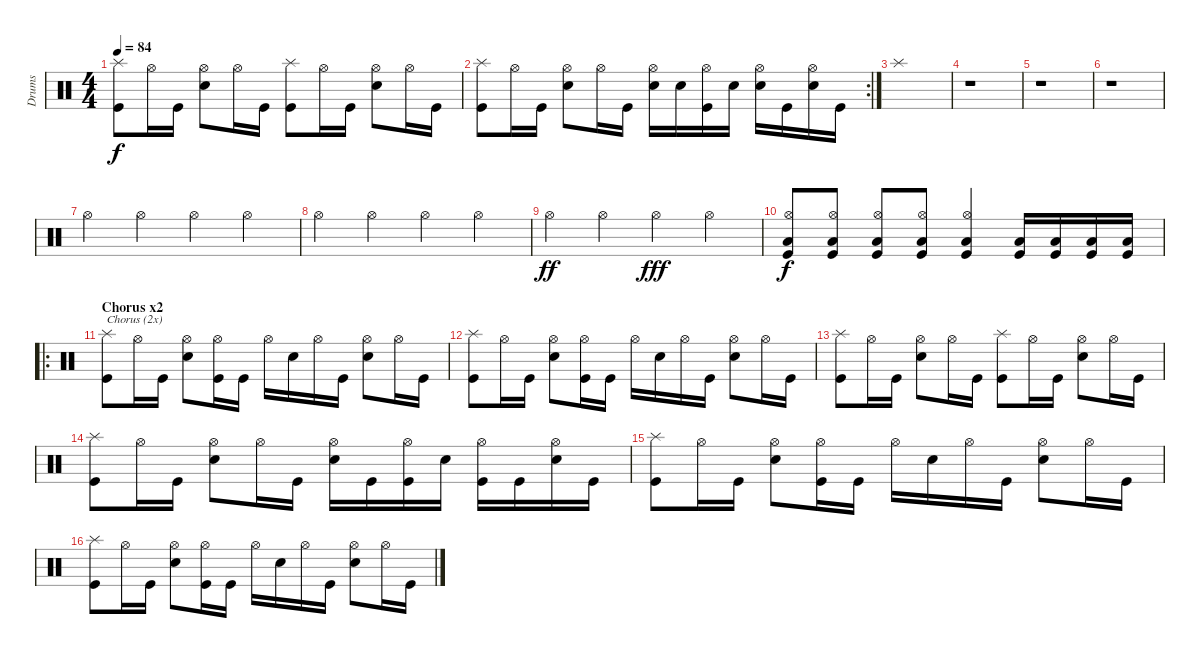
\track ("Drums" "Drums") {instrument percussion}
\staff {score}
\articulation defaults
\ts (4 4)
\tempo 84
\clef neutral
\ks c
("Splash (hit)" "Kick (hit)").8{dy f} "Hi-Hat (open)".16 "Kick (hit)".16 ("Hi-Hat (open)" "Snare (hit) 2").8 "Hi-Hat (open)".16 "Kick (hit)".16 ("Splash (hit)" "Kick (hit)").8 "Hi-Hat (open)".16 "Kick (hit)".16 ("Hi-Hat (open)" "Snare (hit) 2").8 "Hi-Hat (open)".16 "Kick (hit)".16 |
\rc 2
("Splash (hit)" "Kick (hit)").8 "Hi-Hat (open)".16 "Kick (hit)".16 ("Hi-Hat (open)" "Snare (hit) 2").8 "Hi-Hat (open)".16 "Kick (hit)".16 ("Hi-Hat (open)" "Snare (hit) 2").16 "Snare (hit) 2".16 ("Hi-Hat (open)" "Kick (hit)").16 "Snare (hit) 2".16 ("Hi-Hat (open)" "Snare (hit) 2").16 "Kick (hit)".16 ("Hi-Hat (open)" "Snare (hit) 2").16 "Kick (hit)".16 |
"Splash (hit)".1 |
r.1 |
r.1 |
r.1 |
"Hi-Hat (open)".4 "Hi-Hat (open)".4 "Hi-Hat (open)".4 "Hi-Hat (open)".4 |
"Hi-Hat (open)".4 "Hi-Hat (open)".4 "Hi-Hat (open)".4 "Hi-Hat (open)".4 |
"Hi-Hat (open)".4{dy ff} "Hi-Hat (open)".4 "Hi-Hat (open)".4{dy fff} "Hi-Hat (open)".4 |
("Hi-Hat (open)" "Low Floor Tom (hit)" "Kick (hit)").8{dy f} ("Hi-Hat (open)" "Low Floor Tom (hit)" "Kick (hit)").8 ("Hi-Hat (open)" "Low Floor Tom (hit)" "Kick (hit)").8 ("Hi-Hat (open)" "Low Floor Tom (hit)" "Kick (hit)").8 ("Hi-Hat (open)" "Low Floor Tom (hit)" "Kick (hit)").4 ("Low Floor Tom (hit)" "Kick (hit)").16 ("Low Floor Tom (hit)" "Kick (hit)").16 ("Low Floor Tom (hit)" "Kick (hit)").16 ("Low Floor Tom (hit)" "Kick (hit)").16 |
\ro
\section ("" "Chorus x2")
("Splash (hit)" "Kick (hit)").8{txt "Chorus (2x)"} "Hi-Hat (open)".16 "Kick (hit)".16 ("Hi-Hat (open)" "Snare (hit) 2").8 ("Hi-Hat (open)" "Kick (hit)").16 "Kick (hit)".16 "Hi-Hat (open)".16 "Snare (hit) 2".16 "Hi-Hat (open)".16 "Kick (hit)".16 ("Hi-Hat (open)" "Snare (hit) 2").8 "Hi-Hat (open)".16 "Kick (hit)".16 |
("Splash (hit)" "Kick (hit)").8 "Hi-Hat (open)".16 "Kick (hit)".16 ("Hi-Hat (open)" "Snare (hit) 2").8 ("Hi-Hat (open)" "Kick (hit)").16 "Kick (hit)".16 "Hi-Hat (open)".16 "Snare (hit) 2".16 "Hi-Hat (open)".16 "Kick (hit)".16 ("Hi-Hat (open)" "Snare (hit) 2").8 "Hi-Hat (open)".16 "Kick (hit)".16 |
("Splash (hit)" "Kick (hit)").8 "Hi-Hat (open)".16 "Kick (hit)".16 ("Hi-Hat (open)" "Snare (hit) 2").8 "Hi-Hat (open)".16 "Kick (hit)".16 ("Splash (hit)" "Kick (hit)").8 "Hi-Hat (open)".16 "Kick (hit)".16 ("Hi-Hat (open)" "Snare (hit) 2").8 "Hi-Hat (open)".16 "Kick (hit)".16 |
("Splash (hit)" "Kick (hit)").8 "Hi-Hat (open)".16 "Kick (hit)".16 ("Hi-Hat (open)" "Snare (hit) 2").8 "Hi-Hat (open)".16 "Kick (hit)".16 ("Hi-Hat (open)" "Snare (hit) 2").16 "Kick (hit)".16 ("Hi-Hat (open)" "Kick (hit)").16 "Snare (hit) 2".16 ("Hi-Hat (open)" "Kick (hit)").16 "Kick (hit)".16 ("Hi-Hat (open)" "Snare (hit) 2").16 "Kick (hit)".16 |
("Splash (hit)" "Kick (hit)").8 "Hi-Hat (open)".16 "Kick (hit)".16 ("Hi-Hat (open)" "Snare (hit) 2").8 ("Hi-Hat (open)" "Kick (hit)").16 "Kick (hit)".16 "Hi-Hat (open)".16 "Snare (hit) 2".16 "Hi-Hat (open)".16 "Kick (hit)".16 ("Hi-Hat (open)" "Snare (hit) 2").8 "Hi-Hat (open)".16 "Kick (hit)".16 |
("Splash (hit)" "Kick (hit)").8 "Hi-Hat (open)".16 "Kick (hit)".16 ("Hi-Hat (open)" "Snare (hit) 2").8 ("Hi-Hat (open)" "Kick (hit)").16 "Kick (hit)".16 "Hi-Hat (open)".16 "Snare (hit) 2".16 "Hi-Hat (open)".16 "Kick (hit)".16 ("Hi-Hat (open)" "Snare (hit) 2").8 "Hi-Hat (open)".16 "Kick (hit)".16
